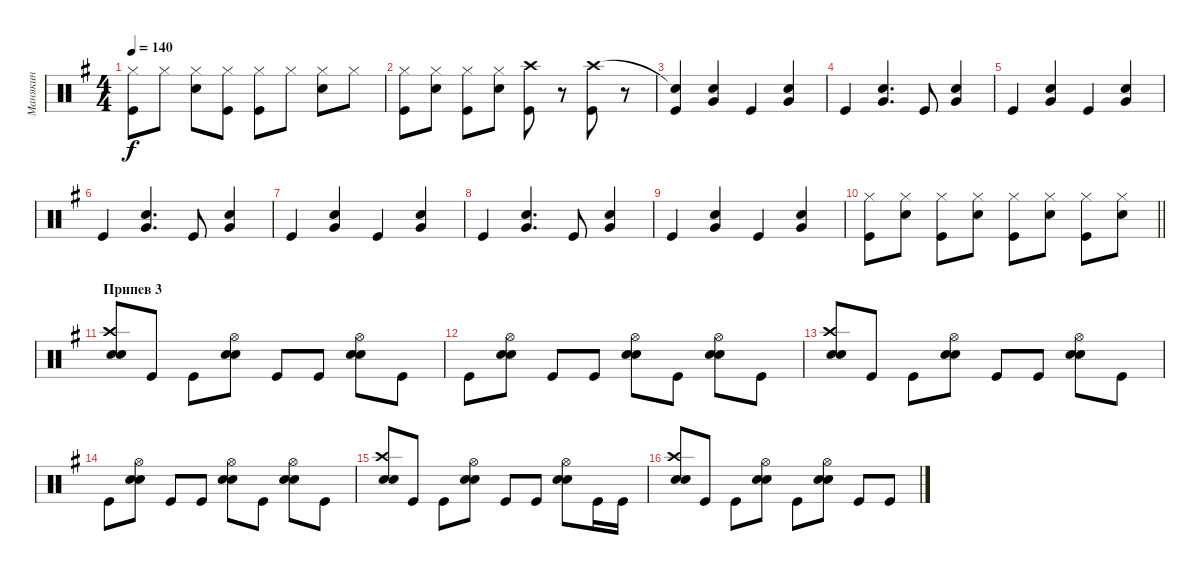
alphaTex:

\track ("Манякин" "Манякин") {instrument percussion}
\staff {score}
\articulation defaults
\ts (4 4)
\tempo 140
\clef neutral
\ks g
("Hi-Hat (closed)" "Kick (hit)").8{dy f} "Hi-Hat (closed)".8 ("Hi-Hat (closed)" "Snare (hit) 2").8 ("Hi-Hat (closed)" "Kick (hit)").8 ("Hi-Hat (closed)" "Kick (hit)").8 "Hi-Hat (closed)".8 ("Hi-Hat (closed)" "Snare (hit) 2").8 "Hi-Hat (closed)".8 |
("Hi-Hat (closed)" "Kick (hit)").8 ("Hi-Hat (closed)" "Snare (hit) 2").8 ("Hi-Hat (closed)" "Kick (hit)").8 ("Hi-Hat (closed)" "Snare (hit) 2").8 ("Crash high (hit)" "Kick (hit)").8 r.8 ("Crash high (hit)" "Kick (hit)").8 r.8 |
("Snare (hit)"{t} "Kick (hit)").4 ("Snare (hit) 2" "Very Low Tom (hit)").4 "Kick (hit)".4 ("Snare (hit) 2" "Very Low Tom (hit)").4 |
"Kick (hit)".4 ("Snare (hit) 2" "Very Low Tom (hit)").4{d} "Kick (hit)".8 ("Snare (hit) 2" "Very Low Tom (hit)").4 |
"Kick (hit)".4 ("Snare (hit) 2" "Very Low Tom (hit)").4 "Kick (hit)".4 ("Snare (hit) 2" "Very Low Tom (hit)").4 |
"Kick (hit)".4 ("Snare (hit) 2" "Very Low Tom (hit)").4{d} "Kick (hit)".8 ("Snare (hit) 2" "Very Low Tom (hit)").4 |
"Kick (hit)".4 ("Snare (hit) 2" "Very Low Tom (hit)").4 "Kick (hit)".4 ("Snare (hit) 2" "Very Low Tom (hit)").4 |
"Kick (hit)".4 ("Snare (hit) 2" "Very Low Tom (hit)").4{d} "Kick (hit)".8 ("Snare (hit) 2" "Very Low Tom (hit)").4 |
"Kick (hit)".4 ("Snare (hit) 2" "Very Low Tom (hit)").4 "Kick (hit)".4 ("Snare (hit) 2" "Very Low Tom (hit)").4 |
\barLineRight lightlight
("Hi-Hat (closed)" "Kick (hit)").8 ("Hi-Hat (closed)" "Snare (hit) 2").8 ("Hi-Hat (closed)" "Kick (hit)").8 ("Hi-Hat (closed)" "Snare (hit) 2").8 ("Hi-Hat (closed)" "Kick (hit)").8 ("Hi-Hat (closed)" "Snare (hit) 2").8 ("Hi-Hat (closed)" "Kick (hit)").8 ("Hi-Hat (closed)" "Snare (hit) 2").8 |
\section ("" "Припев 3")
("Crash high (hit)" "Electric Snare (hit)" "Snare (hit) 2").8 "Kick (hit)".8 "Kick (hit)".8 ("Hi-Hat (open)" "Electric Snare (hit)" "Snare (hit) 2").8 "Kick (hit)".8 "Kick (hit)".8 ("Hi-Hat (open)" "Electric Snare (hit)" "Snare (hit) 2").8 "Kick (hit)".8 |
"Kick (hit)".8 ("Hi-Hat (open)" "Electric Snare (hit)" "Snare (hit) 2").8 "Kick (hit)".8 "Kick (hit)".8 ("Hi-Hat (open)" "Electric Snare (hit)" "Snare (hit) 2").8 "Kick (hit)".8 ("Hi-Hat (open)" "Electric Snare (hit)" "Snare (hit) 2").8 "Kick (hit)".8 |
("Crash high (hit)" "Electric Snare (hit)" "Snare (hit) 2").8 "Kick (hit)".8 "Kick (hit)".8 ("Hi-Hat (open)" "Electric Snare (hit)" "Snare (hit) 2").8 "Kick (hit)".8 "Kick (hit)".8 ("Hi-Hat (open)" "Electric Snare (hit)" "Snare (hit) 2").8 "Kick (hit)".8 |
"Kick (hit)".8 ("Hi-Hat (open)" "Electric Snare (hit)" "Snare (hit) 2").8 "Kick (hit)".8 "Kick (hit)".8 ("Hi-Hat (open)" "Electric Snare (hit)" "Snare (hit) 2").8 "Kick (hit)".8 ("Hi-Hat (open)" "Electric Snare (hit)" "Snare (hit) 2").8 "Kick (hit)".8 |
("Crash high (hit)" "Electric Snare (hit)" "Snare (hit) 2").8 "Kick (hit)".8 "Kick (hit)".8 ("Hi-Hat (open)" "Electric Snare (hit)" "Snare (hit) 2").8 "Kick (hit)".8 "Kick (hit)".8 ("Hi-Hat (open)" "Electric Snare (hit)" "Snare (hit) 2").8 "Kick (hit)".16 "Kick (hit)".16 |
("Crash high (hit)" "Electric Snare (hit)" "Snare (hit) 2").8 "Kick (hit)".8 "Kick (hit)".8 ("Hi-Hat (open)" "Electric Snare (hit)" "Snare (hit) 2").8 "Kick (hit)".8 ("Hi-Hat (open)" "Electric Snare (hit)" "Snare (hit) 2").8 "Kick (hit)".8 "Kick (hit)".8
